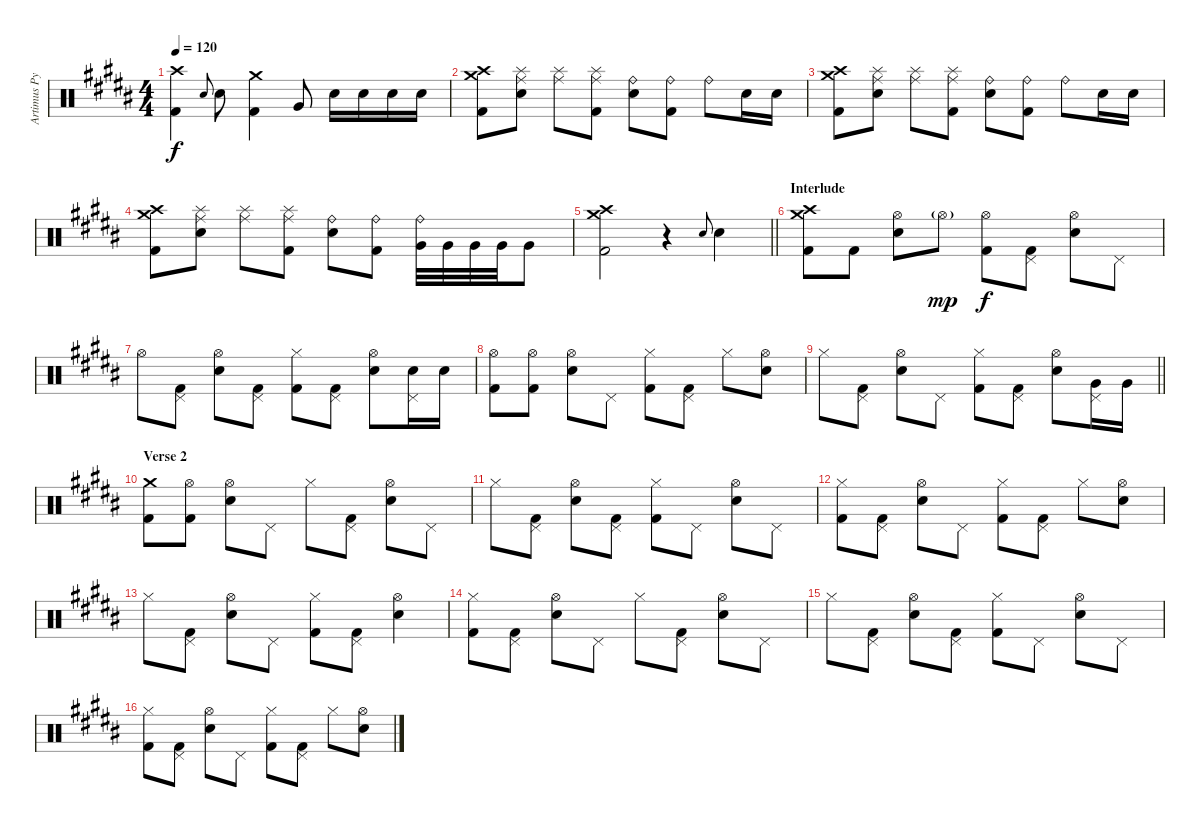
\track ("Artimus Pyle - Drums" "Artimus Py") {instrument percussion}
\staff {score}
\articulation defaults
\ts (4 4)
\tempo 120
\clef neutral
\ks b
("Crash high (hit)" "Kick (hit) 2").4{dy f} "Snare (hit) 2".8{gr onbeat} "Snare (hit) 2".8 ("Crash medium (hit)" "Kick (hit) 2").4 "Very Low Tom (hit)".8 "Snare (hit) 2".16 "Snare (hit) 2".16 "Snare (hit) 2".16 "Snare (hit) 2".16 |
("Crash high (hit)" "Crash medium (hit)" "Kick (hit) 2").8 ("Ride (middle)" "Splash (hit)" "Snare (hit) 2").8 ("Ride (middle)" "Splash (hit)").8 ("Ride (middle)" "Splash (hit)" "Kick (hit) 2").8 ("Ride (bell)" "Snare (hit) 2").8 ("Ride (bell)" "Kick (hit) 2").8 "Ride (bell)".8 "Snare (hit) 2".16 "Snare (hit) 2".16 |
("Crash high (hit)" "Crash medium (hit)" "Kick (hit) 2").8 ("Ride (middle)" "Splash (hit)" "Snare (hit) 2").8 ("Ride (middle)" "Splash (hit)").8 ("Ride (middle)" "Splash (hit)" "Kick (hit) 2").8 ("Ride (bell)" "Snare (hit) 2").8 ("Ride (bell)" "Kick (hit) 2").8 "Ride (bell)".8 "Snare (hit) 2".16 "Snare (hit) 2".16 |
("Crash high (hit)" "Crash medium (hit)" "Kick (hit) 2").8 ("Ride (middle)" "Splash (hit)" "Snare (hit) 2").8 ("Ride (middle)" "Splash (hit)").8 ("Ride (middle)" "Splash (hit)" "Kick (hit) 2").8 ("Ride (bell)" "Snare (hit) 2").8 ("Ride (bell)" "Kick (hit) 2").8 ("Ride (bell)" "Very Low Tom (hit)").32 "Very Low Tom (hit)".32 "Very Low Tom (hit)".32 "Very Low Tom (hit)".32 "Very Low Tom (hit)".8 |
\barLineRight lightlight
("Crash high (hit)" "Crash medium (hit)" "Kick (hit) 2").2 r.4 "Snare (hit) 2".8{gr onbeat} "Snare (hit) 2".4 |
\section ("" "Interlude")
("Crash medium (hit)" "Crash high (hit)" "Kick (hit) 2").8 "Kick (hit) 2".8 ("Snare (hit) 2" "Hi-Hat (open)").8 "Hi-Hat (open)"{g}.8{dy mp} ("Hi-Hat (open)" "Kick (hit) 2").8{dy f} ("Pedal Hi-Hat (hit)" "Kick (hit) 2").8 ("Snare (hit) 2" "Hi-Hat (open)").8 "Pedal Hi-Hat (hit)".8 |
"Hi-Hat (open)".8 ("Pedal Hi-Hat (hit)" "Kick (hit) 2").8 ("Snare (hit) 2" "Hi-Hat (open)").8 ("Pedal Hi-Hat (hit)" "Kick (hit) 2").8 ("Hi-Hat (closed)" "Kick (hit) 2").8 ("Pedal Hi-Hat (hit)" "Kick (hit) 2").8 ("Snare (hit) 2" "Hi-Hat (open)").8 ("Snare (hit) 2" "Pedal Hi-Hat (hit)").16 "Snare (hit) 2".16 |
("Hi-Hat (open)" "Kick (hit) 2").8 ("Hi-Hat (open)" "Kick (hit) 2").8 ("Snare (hit) 2" "Hi-Hat (open)").8 "Pedal Hi-Hat (hit)".8 ("Hi-Hat (closed)" "Kick (hit) 2").8 ("Pedal Hi-Hat (hit)" "Kick (hit) 2").8 "Hi-Hat (closed)".8 ("Snare (hit) 2" "Hi-Hat (open)").8 |
\barLineRight lightlight "Hi-Hat (closed)".8
("Pedal Hi-Hat (hit)" "Kick (hit) 2").8 ("Snare (hit) 2" "Hi-Hat (open)").8 "Pedal Hi-Hat (hit)".8 ("Hi-Hat (closed)" "Kick (hit) 2").8 ("Pedal Hi-Hat (hit)" "Kick (hit) 2").8 ("Snare (hit) 2" "Hi-Hat (open)").8 ("Very Low Tom (hit)" "Pedal Hi-Hat (hit)").16 "Very Low Tom (hit)".16 |
\section ("" "Verse 2")
("Crash medium (hit)" "Kick (hit) 2").8 ("Hi-Hat (open)" "Kick (hit) 2").8 ("Snare (hit) 2" "Hi-Hat (open)").8 "Pedal Hi-Hat (hit)".8 "Hi-Hat (closed)".8 ("Pedal Hi-Hat (hit)" "Kick (hit) 2").8 ("Snare (hit) 2" "Hi-Hat (open)").8 "Pedal Hi-Hat (hit)".8 |
"Hi-Hat (closed)".8 ("Pedal Hi-Hat (hit)" "Kick (hit) 2").8 ("Snare (hit) 2" "Hi-Hat (open)").8 ("Pedal Hi-Hat (hit)" "Kick (hit) 2").8 ("Hi-Hat (closed)" "Kick (hit) 2").8 "Pedal Hi-Hat (hit)".8 ("Snare (hit) 2" "Hi-Hat (open)").8 "Pedal Hi-Hat (hit)".8 |
("Hi-Hat (closed)" "Kick (hit) 2").8 ("Pedal Hi-Hat (hit)" "Kick (hit) 2").8 ("Snare (hit) 2" "Hi-Hat (open)").8 "Pedal Hi-Hat (hit)".8 ("Hi-Hat (closed)" "Kick (hit) 2").8 ("Pedal Hi-Hat (hit)" "Kick (hit) 2").8 "Hi-Hat (closed)".8 ("Snare (hit) 2" "Hi-Hat (open)").8 |
"Hi-Hat (closed)".8 ("Pedal Hi-Hat (hit)" "Kick (hit) 2").8 ("Snare (hit) 2" "Hi-Hat (open)").8 "Pedal Hi-Hat (hit)".8 ("Hi-Hat (closed)" "Kick (hit) 2").8 ("Pedal Hi-Hat (hit)" "Kick (hit) 2").8 ("Snare (hit) 2" "Hi-Hat (open)").4 |
("Hi-Hat (closed)" "Kick (hit) 2").8 ("Pedal Hi-Hat (hit)" "Kick (hit) 2").8 ("Snare (hit) 2" "Hi-Hat (open)").8 "Pedal Hi-Hat (hit)".8 "Hi-Hat (closed)".8 ("Pedal Hi-Hat (hit)" "Kick (hit) 2").8 ("Snare (hit) 2" "Hi-Hat (open)").8 "Pedal Hi-Hat (hit)".8 |
"Hi-Hat (closed)".8 ("Pedal Hi-Hat (hit)" "Kick (hit) 2").8 ("Snare (hit) 2" "Hi-Hat (open)").8 ("Pedal Hi-Hat (hit)" "Kick (hit) 2").8 ("Hi-Hat (closed)" "Kick (hit) 2").8 "Pedal Hi-Hat (hit)".8 ("Snare (hit) 2" "Hi-Hat (open)").8 "Pedal Hi-Hat (hit)".8 |
("Hi-Hat (closed)" "Kick (hit) 2").8 ("Pedal Hi-Hat (hit)" "Kick (hit) 2").8 ("Snare (hit) 2" "Hi-Hat (open)").8 "Pedal Hi-Hat (hit)".8 ("Hi-Hat (closed)" "Kick (hit) 2").8 ("Pedal Hi-Hat (hit)" "Kick (hit) 2").8 "Hi-Hat (closed)".8 ("Snare (hit) 2" "Hi-Hat (open)").8
